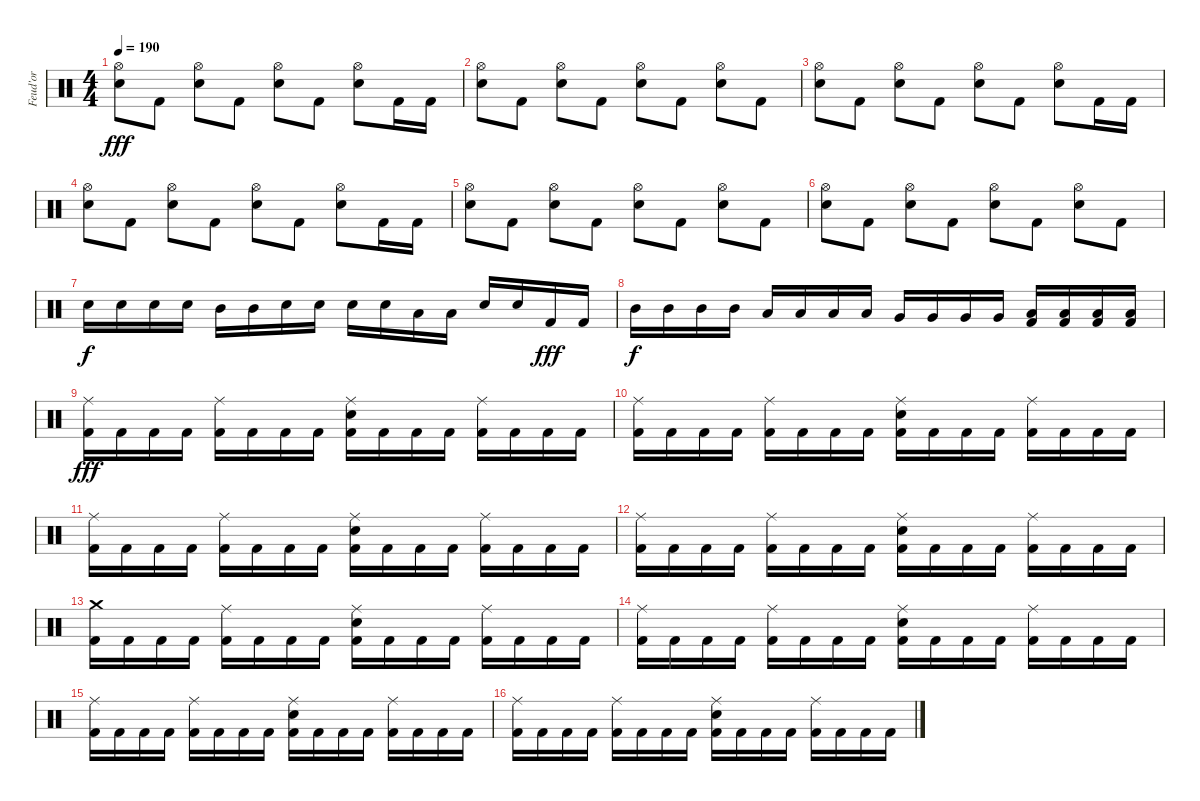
\track ("Feud'or" "Feud'or") {instrument percussion}
\staff {score}
\articulation defaults
\ts (4 4)
\tempo 190
\clef neutral
\ks c
("Hi-Hat (open)" "Snare (hit) 2").8{dy fff} "Kick (hit) 2".8 ("Hi-Hat (open)" "Snare (hit) 2").8 "Kick (hit) 2".8 ("Hi-Hat (open)" "Snare (hit) 2").8 "Kick (hit) 2".8 ("Hi-Hat (open)" "Snare (hit) 2").8 "Kick (hit) 2".16 "Kick (hit) 2".16 |
("Hi-Hat (open)" "Snare (hit) 2").8 "Kick (hit) 2".8 ("Hi-Hat (open)" "Snare (hit) 2").8 "Kick (hit) 2".8 ("Hi-Hat (open)" "Snare (hit) 2").8 "Kick (hit) 2".8 ("Hi-Hat (open)" "Snare (hit) 2").8 "Kick (hit) 2".8 |
("Hi-Hat (open)" "Snare (hit) 2").8 "Kick (hit) 2".8 ("Hi-Hat (open)" "Snare (hit) 2").8 "Kick (hit) 2".8 ("Hi-Hat (open)" "Snare (hit) 2").8 "Kick (hit) 2".8 ("Hi-Hat (open)" "Snare (hit) 2").8 "Kick (hit) 2".16 "Kick (hit) 2".16 |
("Hi-Hat (open)" "Snare (hit) 2").8 "Kick (hit) 2".8 ("Hi-Hat (open)" "Snare (hit) 2").8 "Kick (hit) 2".8 ("Hi-Hat (open)" "Snare (hit) 2").8 "Kick (hit) 2".8 ("Hi-Hat (open)" "Snare (hit) 2").8 "Kick (hit) 2".16 "Kick (hit) 2".16 |
("Hi-Hat (open)" "Snare (hit) 2").8 "Kick (hit) 2".8 ("Hi-Hat (open)" "Snare (hit) 2").8 "Kick (hit) 2".8 ("Hi-Hat (open)" "Snare (hit) 2").8 "Kick (hit) 2".8 ("Hi-Hat (open)" "Snare (hit) 2").8 "Kick (hit) 2".8 |
("Hi-Hat (open)" "Snare (hit) 2").8 "Kick (hit) 2".8 ("Hi-Hat (open)" "Snare (hit) 2").8 "Kick (hit) 2".8 ("Hi-Hat (open)" "Snare (hit) 2").8 "Kick (hit) 2".8 ("Hi-Hat (open)" "Snare (hit) 2").8 "Kick (hit) 2".8 |
"Snare (hit) 2".16{dy f} "Snare (hit) 2".16 "Snare (hit) 2".16 "Snare (hit) 2".16 "Mid Tom (hit)".16 "Mid Tom (hit)".16 "Snare (hit) 2".16 "Snare (hit) 2".16 "Snare (hit) 2".16 "Snare (hit) 2".16 "Low Tom (hit)".16 "Low Tom (hit)".16 "Snare (hit) 2".16 "Snare (hit) 2".16 "Kick (hit) 2".16{dy fff} "Kick (hit) 2".16 |
"Mid Tom (hit)".16{dy f} "Mid Tom (hit)".16 "Mid Tom (hit)".16 "Mid Tom (hit)".16 "Low Tom (hit)".16 "Low Tom (hit)".16 "Low Tom (hit)".16 "Low Tom (hit)".16 "Very Low Tom (hit)".16 "Very Low Tom (hit)".16 "Very Low Tom (hit)".16 "Very Low Tom (hit)".16 ("Low Floor Tom (hit)" "Kick (hit) 2").16 ("Low Floor Tom (hit)" "Kick (hit) 2").16 ("Low Floor Tom (hit)" "Kick (hit) 2").16 ("Low Floor Tom (hit)" "Kick (hit) 2").16 |
("Ride (middle)" "Kick (hit) 2").16{dy fff} "Kick (hit) 2".16 "Kick (hit) 2".16 "Kick (hit) 2".16 ("Ride (middle)" "Kick (hit) 2").16 "Kick (hit) 2".16 "Kick (hit) 2".16 "Kick (hit) 2".16 ("Ride (middle)" "Snare (hit) 2" "Kick (hit) 2").16 "Kick (hit) 2".16 "Kick (hit) 2".16 "Kick (hit) 2".16 ("Ride (middle)" "Kick (hit) 2").16 "Kick (hit) 2".16 "Kick (hit) 2".16 "Kick (hit) 2".16 |
("Ride (middle)" "Kick (hit) 2").16 "Kick (hit) 2".16 "Kick (hit) 2".16 "Kick (hit) 2".16 ("Ride (middle)" "Kick (hit) 2").16 "Kick (hit) 2".16 "Kick (hit) 2".16 "Kick (hit) 2".16 ("Ride (middle)" "Snare (hit) 2" "Kick (hit) 2").16 "Kick (hit) 2".16 "Kick (hit) 2".16 "Kick (hit) 2".16 ("Ride (middle)" "Kick (hit) 2").16 "Kick (hit) 2".16 "Kick (hit) 2".16 "Kick (hit) 2".16 |
("Ride (middle)" "Kick (hit) 2").16 "Kick (hit) 2".16 "Kick (hit) 2".16 "Kick (hit) 2".16 ("Ride (middle)" "Kick (hit) 2").16 "Kick (hit) 2".16 "Kick (hit) 2".16 "Kick (hit) 2".16 ("Ride (middle)" "Snare (hit) 2" "Kick (hit) 2").16 "Kick (hit) 2".16 "Kick (hit) 2".16 "Kick (hit) 2".16 ("Ride (middle)" "Kick (hit) 2").16 "Kick (hit) 2".16 "Kick (hit) 2".16 "Kick (hit) 2".16 |
("Ride (middle)" "Kick (hit) 2").16 "Kick (hit) 2".16 "Kick (hit) 2".16 "Kick (hit) 2".16 ("Ride (middle)" "Kick (hit) 2").16 "Kick (hit) 2".16 "Kick (hit) 2".16 "Kick (hit) 2".16 ("Ride (middle)" "Snare (hit) 2" "Kick (hit) 2").16 "Kick (hit) 2".16 "Kick (hit) 2".16 "Kick (hit) 2".16 ("Ride (middle)" "Kick (hit) 2").16 "Kick (hit) 2".16 "Kick (hit) 2".16 "Kick (hit) 2".16 |
("Crash medium (hit)" "Kick (hit) 2").16 "Kick (hit) 2".16 "Kick (hit) 2".16 "Kick (hit) 2".16 ("Ride (middle)" "Kick (hit) 2").16 "Kick (hit) 2".16 "Kick (hit) 2".16 "Kick (hit) 2".16 ("Ride (middle)" "Snare (hit) 2" "Kick (hit) 2").16 "Kick (hit) 2".16 "Kick (hit) 2".16 "Kick (hit) 2".16 ("Ride (middle)" "Kick (hit) 2").16 "Kick (hit) 2".16 "Kick (hit) 2".16 "Kick (hit) 2".16 |
("Ride (middle)" "Kick (hit) 2").16 "Kick (hit) 2".16 "Kick (hit) 2".16 "Kick (hit) 2".16 ("Ride (middle)" "Kick (hit) 2").16 "Kick (hit) 2".16 "Kick (hit) 2".16 "Kick (hit) 2".16 ("Ride (middle)" "Snare (hit) 2" "Kick (hit) 2").16 "Kick (hit) 2".16 "Kick (hit) 2".16 "Kick (hit) 2".16 ("Ride (middle)" "Kick (hit) 2").16 "Kick (hit) 2".16 "Kick (hit) 2".16 "Kick (hit) 2".16 |
("Ride (middle)" "Kick (hit) 2").16 "Kick (hit) 2".16 "Kick (hit) 2".16 "Kick (hit) 2".16 ("Ride (middle)" "Kick (hit) 2").16 "Kick (hit) 2".16 "Kick (hit) 2".16 "Kick (hit) 2".16 ("Ride (middle)" "Snare (hit) 2" "Kick (hit) 2").16 "Kick (hit) 2".16 "Kick (hit) 2".16 "Kick (hit) 2".16 ("Ride (middle)" "Kick (hit) 2").16 "Kick (hit) 2".16 "Kick (hit) 2".16 "Kick (hit) 2".16 |
("Ride (middle)" "Kick (hit) 2").16 "Kick (hit) 2".16 "Kick (hit) 2".16 "Kick (hit) 2".16 ("Ride (middle)" "Kick (hit) 2").16 "Kick (hit) 2".16 "Kick (hit) 2".16 "Kick (hit) 2".16 ("Ride (middle)" "Snare (hit) 2" "Kick (hit) 2").16 "Kick (hit) 2".16 "Kick (hit) 2".16 "Kick (hit) 2".16 ("Ride (middle)" "Kick (hit) 2").16 "Kick (hit) 2".16 "Kick (hit) 2".16 "Kick (hit) 2".16
